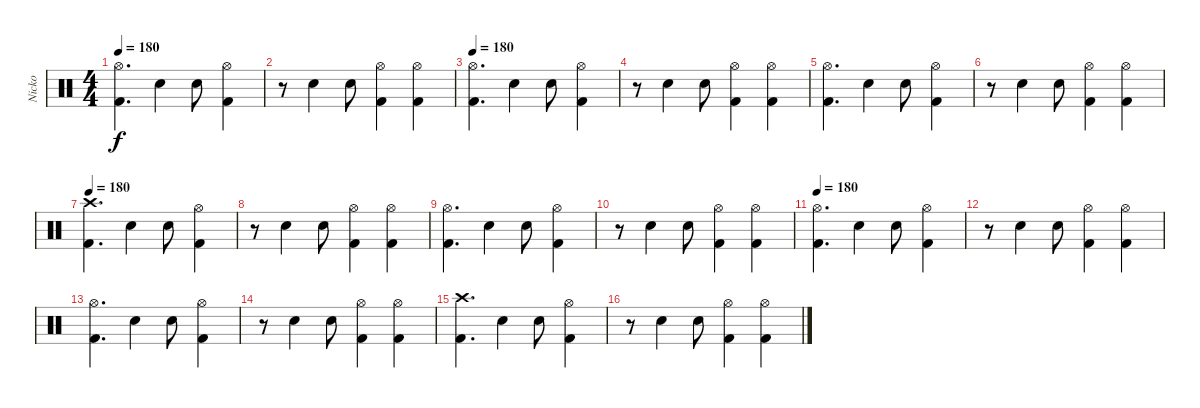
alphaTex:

\track ("Nicko" "Nicko") {instrument percussion}
\staff {score}
\articulation defaults
\ts (4 4)
\tempo 180
\clef neutral
\ks c
("Hi-Hat (open)" "Kick (hit) 2").4{d dy f} "Snare (hit) 2".4 "Snare (hit) 2".8 ("Hi-Hat (open)" "Kick (hit) 2").4 |
r.8 "Snare (hit) 2".4 "Snare (hit) 2".8 ("Hi-Hat (open)" "Kick (hit) 2").4 ("Hi-Hat (open)" "Kick (hit) 2").4 |
\tempo 180
("Hi-Hat (open)" "Kick (hit) 2").4{d} "Snare (hit) 2".4 "Snare (hit) 2".8 ("Hi-Hat (open)" "Kick (hit) 2").4 |
r.8 "Snare (hit) 2".4 "Snare (hit) 2".8 ("Hi-Hat (open)" "Kick (hit) 2").4 ("Hi-Hat (open)" "Kick (hit) 2").4 |
("Hi-Hat (open)" "Kick (hit) 2").4{d} "Snare (hit) 2".4 "Snare (hit) 2".8 ("Hi-Hat (open)" "Kick (hit) 2").4 |
r.8 "Snare (hit) 2".4 "Snare (hit) 2".8 ("Hi-Hat (open)" "Kick (hit) 2").4 ("Hi-Hat (open)" "Kick (hit) 2").4 |
\tempo 180
("Crash high (hit)" "Kick (hit) 2").4{d} "Snare (hit) 2".4 "Snare (hit) 2".8 ("Hi-Hat (open)" "Kick (hit) 2").4 |
r.8 "Snare (hit) 2".4 "Snare (hit) 2".8 ("Hi-Hat (open)" "Kick (hit) 2").4 ("Hi-Hat (open)" "Kick (hit) 2").4 |
("Hi-Hat (open)" "Kick (hit) 2").4{d} "Snare (hit) 2".4 "Snare (hit) 2".8 ("Hi-Hat (open)" "Kick (hit) 2").4 |
r.8 "Snare (hit) 2".4 "Snare (hit) 2".8 ("Hi-Hat (open)" "Kick (hit) 2").4 ("Hi-Hat (open)" "Kick (hit) 2").4 |
\tempo 180
("Hi-Hat (open)" "Kick (hit) 2").4{d} "Snare (hit) 2".4 "Snare (hit) 2".8 ("Hi-Hat (open)" "Kick (hit) 2").4 |
r.8 "Snare (hit) 2".4 "Snare (hit) 2".8 ("Hi-Hat (open)" "Kick (hit) 2").4 ("Hi-Hat (open)" "Kick (hit) 2").4 |
("Hi-Hat (open)" "Kick (hit) 2").4{d} "Snare (hit) 2".4 "Snare (hit) 2".8 ("Hi-Hat (open)" "Kick (hit) 2").4 |
r.8 "Snare (hit) 2".4 "Snare (hit) 2".8 ("Hi-Hat (open)" "Kick (hit) 2").4 ("Hi-Hat (open)" "Kick (hit) 2").4 |
("Crash high (hit)" "Kick (hit) 2").4{d} "Snare (hit) 2".4 "Snare (hit) 2".8 ("Hi-Hat (open)" "Kick (hit) 2").4 |
r.8 "Snare (hit) 2".4 "Snare (hit) 2".8 ("Hi-Hat (open)" "Kick (hit) 2").4 ("Hi-Hat (open)" "Kick (hit) 2").4
